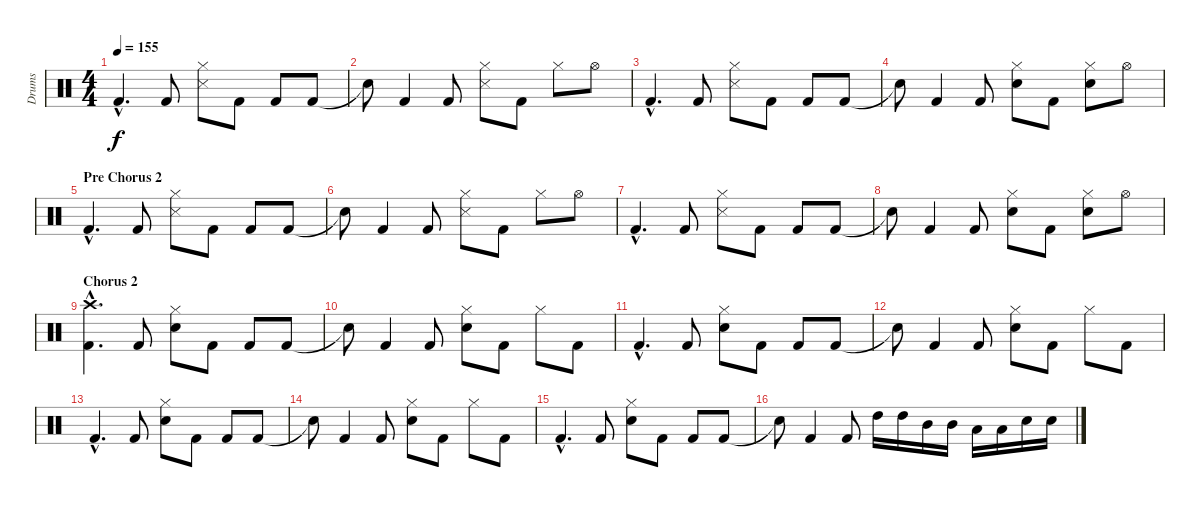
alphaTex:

\track ("Drums" "Drums") {instrument percussion}
\staff {score}
\articulation defaults
\ts (4 4)
\tempo 155
\clef neutral
\ks c "Kick (hit) 2"{hac}.4{d dy f} "Kick (hit) 2".8
("Hi-Hat (closed)" "Snare (side stick) 3").8 "Kick (hit) 2".8 "Kick (hit) 2".8 "Kick (hit) 2".8 |
"Snare (hit)"{t}.8 "Kick (hit) 2".4 "Kick (hit) 2".8 ("Hi-Hat (closed)" "Snare (side stick) 3").8 "Kick (hit) 2".8 "Hi-Hat (closed)".8 "Hi-Hat (open)".8 |
"Kick (hit) 2"{hac}.4{d} "Kick (hit) 2".8 ("Hi-Hat (closed)" "Snare (side stick) 3").8 "Kick (hit) 2".8 "Kick (hit) 2".8 "Kick (hit) 2".8 |
"Snare (hit)"{t}.8 "Kick (hit) 2".4 "Kick (hit) 2".8 ("Hi-Hat (closed)" "Snare (hit) 2").8 "Kick (hit) 2".8 ("Hi-Hat (closed)" "Snare (hit) 2").8 "Hi-Hat (open)".8 |
\section ("" "Pre Chorus 2")
"Kick (hit) 2"{hac}.4{d} "Kick (hit) 2".8 ("Hi-Hat (closed)" "Snare (side stick) 3").8 "Kick (hit) 2".8 "Kick (hit) 2".8 "Kick (hit) 2".8 |
"Snare (hit)"{t}.8 "Kick (hit) 2".4 "Kick (hit) 2".8 ("Hi-Hat (closed)" "Snare (side stick) 3").8 "Kick (hit) 2".8 "Hi-Hat (closed)".8 "Hi-Hat (open)".8 |
"Kick (hit) 2"{hac}.4{d} "Kick (hit) 2".8 ("Hi-Hat (closed)" "Snare (side stick) 3").8 "Kick (hit) 2".8 "Kick (hit) 2".8 "Kick (hit) 2".8 |
"Snare (hit)"{t}.8 "Kick (hit) 2".4 "Kick (hit) 2".8 ("Hi-Hat (closed)" "Snare (hit) 2").8 "Kick (hit) 2".8 ("Hi-Hat (closed)" "Snare (hit) 2").8 "Hi-Hat (open)".8 |
\section ("" "Chorus 2")
("Crash high (hit)"{hac} "Kick (hit) 2"{hac}).4{d} "Kick (hit) 2".8 ("Hi-Hat (closed)" "Snare (hit) 2").8 "Kick (hit) 2".8 "Kick (hit) 2".8 "Kick (hit) 2".8 |
"Snare (hit)"{t}.8 "Kick (hit) 2".4 "Kick (hit) 2".8 ("Hi-Hat (closed)" "Snare (hit) 2").8 "Kick (hit) 2".8 "Hi-Hat (closed)".8 "Kick (hit) 2".8 |
"Kick (hit) 2"{hac}.4{d} "Kick (hit) 2".8 ("Hi-Hat (closed)" "Snare (hit) 2").8 "Kick (hit) 2".8 "Kick (hit) 2".8 "Kick (hit) 2".8 |
"Snare (hit)"{t}.8 "Kick (hit) 2".4 "Kick (hit) 2".8 ("Hi-Hat (closed)" "Snare (hit) 2").8 "Kick (hit) 2".8 "Hi-Hat (closed)".8 "Kick (hit) 2".8 |
"Kick (hit) 2"{hac}.4{d} "Kick (hit) 2".8 ("Hi-Hat (closed)" "Snare (hit) 2").8 "Kick (hit) 2".8 "Kick (hit) 2".8 "Kick (hit) 2".8 |
"Snare (hit)"{t}.8 "Kick (hit) 2".4 "Kick (hit) 2".8 ("Hi-Hat (closed)" "Snare (hit) 2").8 "Kick (hit) 2".8 "Hi-Hat (closed)".8 "Kick (hit) 2".8 |
"Kick (hit) 2"{hac}.4{d} "Kick (hit) 2".8 ("Hi-Hat (closed)" "Snare (hit) 2").8 "Kick (hit) 2".8 "Kick (hit) 2".8 "Kick (hit) 2".8 |
"Snare (hit)"{t}.8 "Kick (hit) 2".4 "Kick (hit) 2".8 "High Tom (hit)".16 "High Tom (hit)".16 "Mid Tom (hit)".16 "Mid Tom (hit)".16 "Low Tom (hit)".16 "Low Tom (hit)".16 "Snare (hit) 2".16 "Snare (hit) 2".16
